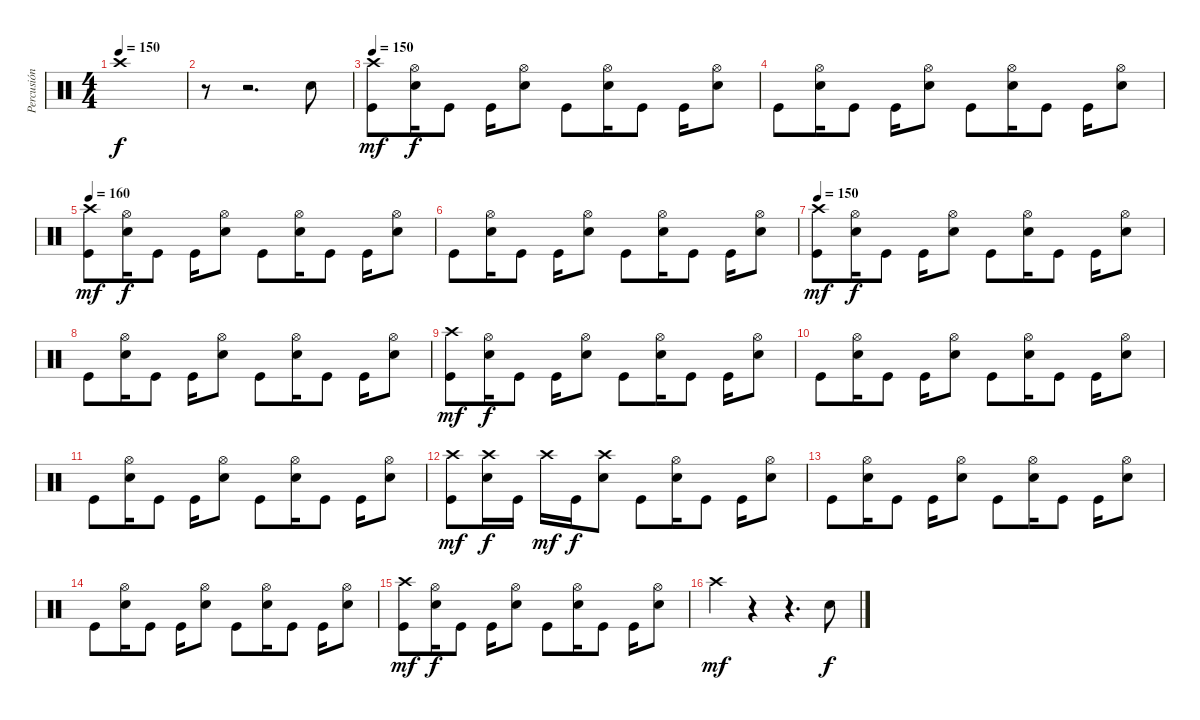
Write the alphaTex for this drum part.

\track ("Percusión" "Percusión") {instrument percussion}
\staff {score}
\articulation defaults
\ts (4 4)
\tempo 150
\clef neutral
\ks c "Crash high (hit)".1{dy f}
|
r.8 r.2{d} "Snare (hit) 2".8 |
\tempo 150
("Kick (hit)" "Crash high (hit)").8{dy mf} ("Snare (hit) 2" "Hi-Hat (open)").16{dy f} "Kick (hit)".8 "Kick (hit)".16 ("Snare (hit) 2" "Hi-Hat (open)").8 "Kick (hit)".8 ("Snare (hit) 2" "Hi-Hat (open)").16 "Kick (hit)".8 "Kick (hit)".16 ("Snare (hit) 2" "Hi-Hat (open)").8 |
"Kick (hit)".8 ("Snare (hit) 2" "Hi-Hat (open)").16 "Kick (hit)".8 "Kick (hit)".16 ("Snare (hit) 2" "Hi-Hat (open)").8 "Kick (hit)".8 ("Snare (hit) 2" "Hi-Hat (open)").16 "Kick (hit)".8 "Kick (hit)".16 ("Snare (hit) 2" "Hi-Hat (open)").8 |
\tempo 160
("Kick (hit)" "Crash high (hit)").8{dy mf} ("Snare (hit) 2" "Hi-Hat (open)").16{dy f} "Kick (hit)".8 "Kick (hit)".16 ("Snare (hit) 2" "Hi-Hat (open)").8 "Kick (hit)".8 ("Snare (hit) 2" "Hi-Hat (open)").16 "Kick (hit)".8 "Kick (hit)".16 ("Snare (hit) 2" "Hi-Hat (open)").8 |
"Kick (hit)".8 ("Snare (hit) 2" "Hi-Hat (open)").16 "Kick (hit)".8 "Kick (hit)".16 ("Snare (hit) 2" "Hi-Hat (open)").8 "Kick (hit)".8 ("Snare (hit) 2" "Hi-Hat (open)").16 "Kick (hit)".8 "Kick (hit)".16 ("Snare (hit) 2" "Hi-Hat (open)").8 |
\tempo 150
("Kick (hit)" "Crash high (hit)").8{dy mf} ("Snare (hit) 2" "Hi-Hat (open)").16{dy f} "Kick (hit)".8 "Kick (hit)".16 ("Snare (hit) 2" "Hi-Hat (open)").8 "Kick (hit)".8 ("Snare (hit) 2" "Hi-Hat (open)").16 "Kick (hit)".8 "Kick (hit)".16 ("Snare (hit) 2" "Hi-Hat (open)").8 |
"Kick (hit)".8 ("Snare (hit) 2" "Hi-Hat (open)").16 "Kick (hit)".8 "Kick (hit)".16 ("Snare (hit) 2" "Hi-Hat (open)").8 "Kick (hit)".8 ("Snare (hit) 2" "Hi-Hat (open)").16 "Kick (hit)".8 "Kick (hit)".16 ("Snare (hit) 2" "Hi-Hat (open)").8 |
("Kick (hit)" "Crash high (hit)").8{dy mf} ("Snare (hit) 2" "Hi-Hat (open)").16{dy f} "Kick (hit)".8 "Kick (hit)".16 ("Snare (hit) 2" "Hi-Hat (open)").8 "Kick (hit)".8 ("Snare (hit) 2" "Hi-Hat (open)").16 "Kick (hit)".8 "Kick (hit)".16 ("Snare (hit) 2" "Hi-Hat (open)").8 |
"Kick (hit)".8 ("Snare (hit) 2" "Hi-Hat (open)").16 "Kick (hit)".8 "Kick (hit)".16 ("Snare (hit) 2" "Hi-Hat (open)").8 "Kick (hit)".8 ("Snare (hit) 2" "Hi-Hat (open)").16 "Kick (hit)".8 "Kick (hit)".16 ("Snare (hit) 2" "Hi-Hat (open)").8 |
"Kick (hit)".8 ("Snare (hit) 2" "Hi-Hat (open)").16 "Kick (hit)".8 "Kick (hit)".16 ("Snare (hit) 2" "Hi-Hat (open)").8 "Kick (hit)".8 ("Snare (hit) 2" "Hi-Hat (open)").16 "Kick (hit)".8 "Kick (hit)".16 ("Snare (hit) 2" "Hi-Hat (open)").8 |
("Kick (hit)" "Crash high (hit)").8{dy mf} ("Snare (hit) 2" "Crash high (hit)").16{dy f} "Kick (hit)".16 "Crash high (hit)".16{dy mf} "Kick (hit)".16{dy f} ("Snare (hit) 2" "Crash high (hit)").8 "Kick (hit)".8 ("Snare (hit) 2" "Hi-Hat (open)").16 "Kick (hit)".8 "Kick (hit)".16 ("Snare (hit) 2" "Hi-Hat (open)").8 |
"Kick (hit)".8 ("Snare (hit) 2" "Hi-Hat (open)").16 "Kick (hit)".8 "Kick (hit)".16 ("Snare (hit) 2" "Hi-Hat (open)").8 "Kick (hit)".8 ("Snare (hit) 2" "Hi-Hat (open)").16 "Kick (hit)".8 "Kick (hit)".16 ("Snare (hit) 2" "Hi-Hat (open)").8 |
"Kick (hit)".8 ("Snare (hit) 2" "Hi-Hat (open)").16 "Kick (hit)".8 "Kick (hit)".16 ("Snare (hit) 2" "Hi-Hat (open)").8 "Kick (hit)".8 ("Snare (hit) 2" "Hi-Hat (open)").16 "Kick (hit)".8 "Kick (hit)".16 ("Snare (hit) 2" "Hi-Hat (open)").8 |
("Kick (hit)" "Crash high (hit)").8{dy mf} ("Snare (hit) 2" "Hi-Hat (open)").16{dy f} "Kick (hit)".8 "Kick (hit)".16 ("Snare (hit) 2" "Hi-Hat (open)").8 "Kick (hit)".8 ("Snare (hit) 2" "Hi-Hat (open)").16 "Kick (hit)".8 "Kick (hit)".16 ("Snare (hit) 2" "Hi-Hat (open)").8 |
"Crash high (hit)".4{dy mf} r.4 r.4{d} "Snare (hit) 2".8{dy f}
